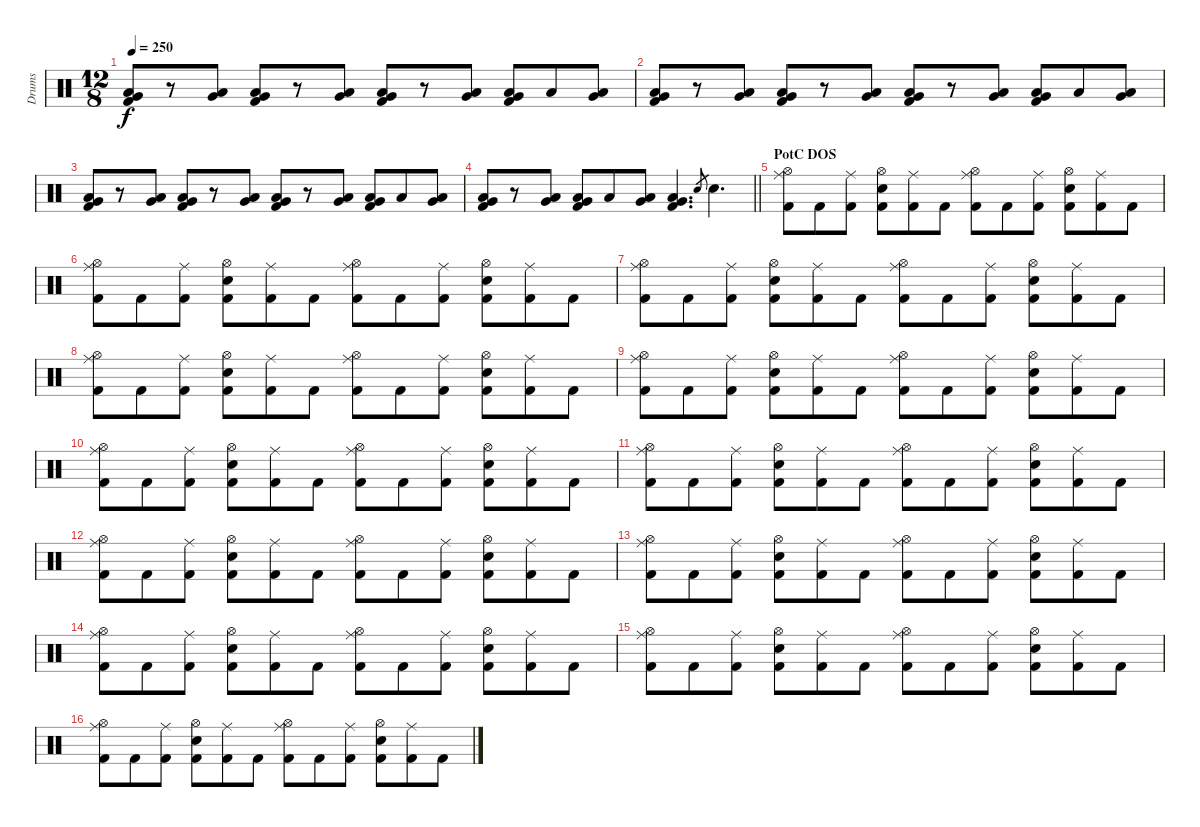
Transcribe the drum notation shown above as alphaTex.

\track ("Drums" "Drums") {instrument percussion}
\staff {score}
\articulation defaults
\ts (12 8)
\tempo 250
\clef neutral
\ks c
("Very Low Tom (hit)" "Low Floor Tom (hit)" "Kick (hit) 2").8{dy f} r.8 ("Very Low Tom (hit)" "Low Floor Tom (hit)").8 ("Very Low Tom (hit)" "Low Floor Tom (hit)" "Kick (hit) 2").8 r.8 ("Very Low Tom (hit)" "Low Floor Tom (hit)").8 ("Very Low Tom (hit)" "Low Floor Tom (hit)" "Kick (hit) 2").8 r.8 ("Very Low Tom (hit)" "Low Floor Tom (hit)").8 ("Very Low Tom (hit)" "Low Floor Tom (hit)" "Kick (hit) 2").8 "Low Floor Tom (hit)".8 ("Very Low Tom (hit)" "Low Floor Tom (hit)").8 |
("Very Low Tom (hit)" "Low Floor Tom (hit)" "Kick (hit) 2").8 r.8 ("Very Low Tom (hit)" "Low Floor Tom (hit)").8 ("Very Low Tom (hit)" "Low Floor Tom (hit)" "Kick (hit) 2").8 r.8 ("Very Low Tom (hit)" "Low Floor Tom (hit)").8 ("Very Low Tom (hit)" "Low Floor Tom (hit)" "Kick (hit) 2").8 r.8 ("Very Low Tom (hit)" "Low Floor Tom (hit)").8 ("Very Low Tom (hit)" "Low Floor Tom (hit)" "Kick (hit) 2").8 "Low Floor Tom (hit)".8 ("Very Low Tom (hit)" "Low Floor Tom (hit)").8 |
("Very Low Tom (hit)" "Low Floor Tom (hit)" "Kick (hit) 2").8 r.8 ("Very Low Tom (hit)" "Low Floor Tom (hit)").8 ("Very Low Tom (hit)" "Low Floor Tom (hit)" "Kick (hit) 2").8 r.8 ("Very Low Tom (hit)" "Low Floor Tom (hit)").8 ("Very Low Tom (hit)" "Low Floor Tom (hit)" "Kick (hit) 2").8 r.8 ("Very Low Tom (hit)" "Low Floor Tom (hit)").8 ("Very Low Tom (hit)" "Low Floor Tom (hit)" "Kick (hit) 2").8 "Low Floor Tom (hit)".8 ("Very Low Tom (hit)" "Low Floor Tom (hit)").8 |
\barLineRight lightlight
("Very Low Tom (hit)" "Low Floor Tom (hit)" "Kick (hit) 2").8 r.8 ("Very Low Tom (hit)" "Low Floor Tom (hit)").8 ("Very Low Tom (hit)" "Low Floor Tom (hit)" "Kick (hit) 2").8 "Low Floor Tom (hit)".8 ("Very Low Tom (hit)" "Low Floor Tom (hit)").8 ("Very Low Tom (hit)" "Low Floor Tom (hit)" "Kick (hit) 2").4{d} "Snare (hit) 2".8{gr} "Snare (hit) 2".4{d} |
\section ("" "PotC DOS")
("Ride (middle)" "Hi-Hat (open)" "Kick (hit) 2").8 "Kick (hit) 2".8 ("Ride (middle)" "Kick (hit) 2").8 ("Hi-Hat (open)" "Snare (hit) 2" "Kick (hit) 2").8 ("Ride (middle)" "Kick (hit) 2").8 "Kick (hit) 2".8 ("Ride (middle)" "Hi-Hat (open)" "Kick (hit) 2").8 "Kick (hit) 2".8 ("Ride (middle)" "Kick (hit) 2").8 ("Hi-Hat (open)" "Snare (hit) 2" "Kick (hit) 2").8 ("Ride (middle)" "Kick (hit) 2").8 "Kick (hit) 2".8 |
("Ride (middle)" "Hi-Hat (open)" "Kick (hit) 2").8 "Kick (hit) 2".8 ("Ride (middle)" "Kick (hit) 2").8 ("Hi-Hat (open)" "Snare (hit) 2" "Kick (hit) 2").8 ("Ride (middle)" "Kick (hit) 2").8 "Kick (hit) 2".8 ("Ride (middle)" "Hi-Hat (open)" "Kick (hit) 2").8 "Kick (hit) 2".8 ("Ride (middle)" "Kick (hit) 2").8 ("Hi-Hat (open)" "Snare (hit) 2" "Kick (hit) 2").8 ("Ride (middle)" "Kick (hit) 2").8 "Kick (hit) 2".8 |
("Ride (middle)" "Hi-Hat (open)" "Kick (hit) 2").8 "Kick (hit) 2".8 ("Ride (middle)" "Kick (hit) 2").8 ("Hi-Hat (open)" "Snare (hit) 2" "Kick (hit) 2").8 ("Ride (middle)" "Kick (hit) 2").8 "Kick (hit) 2".8 ("Ride (middle)" "Hi-Hat (open)" "Kick (hit) 2").8 "Kick (hit) 2".8 ("Ride (middle)" "Kick (hit) 2").8 ("Hi-Hat (open)" "Snare (hit) 2" "Kick (hit) 2").8 ("Ride (middle)" "Kick (hit) 2").8 "Kick (hit) 2".8 |
("Ride (middle)" "Hi-Hat (open)" "Kick (hit) 2").8 "Kick (hit) 2".8 ("Ride (middle)" "Kick (hit) 2").8 ("Hi-Hat (open)" "Snare (hit) 2" "Kick (hit) 2").8 ("Ride (middle)" "Kick (hit) 2").8 "Kick (hit) 2".8 ("Ride (middle)" "Hi-Hat (open)" "Kick (hit) 2").8 "Kick (hit) 2".8 ("Ride (middle)" "Kick (hit) 2").8 ("Hi-Hat (open)" "Snare (hit) 2" "Kick (hit) 2").8 ("Ride (middle)" "Kick (hit) 2").8 "Kick (hit) 2".8 |
("Ride (middle)" "Hi-Hat (open)" "Kick (hit) 2").8 "Kick (hit) 2".8 ("Ride (middle)" "Kick (hit) 2").8 ("Hi-Hat (open)" "Snare (hit) 2" "Kick (hit) 2").8 ("Ride (middle)" "Kick (hit) 2").8 "Kick (hit) 2".8 ("Ride (middle)" "Hi-Hat (open)" "Kick (hit) 2").8 "Kick (hit) 2".8 ("Ride (middle)" "Kick (hit) 2").8 ("Hi-Hat (open)" "Snare (hit) 2" "Kick (hit) 2").8 ("Ride (middle)" "Kick (hit) 2").8 "Kick (hit) 2".8 |
("Ride (middle)" "Hi-Hat (open)" "Kick (hit) 2").8 "Kick (hit) 2".8 ("Ride (middle)" "Kick (hit) 2").8 ("Hi-Hat (open)" "Snare (hit) 2" "Kick (hit) 2").8 ("Ride (middle)" "Kick (hit) 2").8 "Kick (hit) 2".8 ("Ride (middle)" "Hi-Hat (open)" "Kick (hit) 2").8 "Kick (hit) 2".8 ("Ride (middle)" "Kick (hit) 2").8 ("Hi-Hat (open)" "Snare (hit) 2" "Kick (hit) 2").8 ("Ride (middle)" "Kick (hit) 2").8 "Kick (hit) 2".8 |
("Ride (middle)" "Hi-Hat (open)" "Kick (hit) 2").8 "Kick (hit) 2".8 ("Ride (middle)" "Kick (hit) 2").8 ("Hi-Hat (open)" "Snare (hit) 2" "Kick (hit) 2").8 ("Ride (middle)" "Kick (hit) 2").8 "Kick (hit) 2".8 ("Ride (middle)" "Hi-Hat (open)" "Kick (hit) 2").8 "Kick (hit) 2".8 ("Ride (middle)" "Kick (hit) 2").8 ("Hi-Hat (open)" "Snare (hit) 2" "Kick (hit) 2").8 ("Ride (middle)" "Kick (hit) 2").8 "Kick (hit) 2".8 |
("Ride (middle)" "Hi-Hat (open)" "Kick (hit) 2").8 "Kick (hit) 2".8 ("Ride (middle)" "Kick (hit) 2").8 ("Hi-Hat (open)" "Snare (hit) 2" "Kick (hit) 2").8 ("Ride (middle)" "Kick (hit) 2").8 "Kick (hit) 2".8 ("Ride (middle)" "Hi-Hat (open)" "Kick (hit) 2").8 "Kick (hit) 2".8 ("Ride (middle)" "Kick (hit) 2").8 ("Hi-Hat (open)" "Snare (hit) 2" "Kick (hit) 2").8 ("Ride (middle)" "Kick (hit) 2").8 "Kick (hit) 2".8 |
("Ride (middle)" "Hi-Hat (open)" "Kick (hit) 2").8 "Kick (hit) 2".8 ("Ride (middle)" "Kick (hit) 2").8 ("Hi-Hat (open)" "Snare (hit) 2" "Kick (hit) 2").8 ("Ride (middle)" "Kick (hit) 2").8 "Kick (hit) 2".8 ("Ride (middle)" "Hi-Hat (open)" "Kick (hit) 2").8 "Kick (hit) 2".8 ("Ride (middle)" "Kick (hit) 2").8 ("Hi-Hat (open)" "Snare (hit) 2" "Kick (hit) 2").8 ("Ride (middle)" "Kick (hit) 2").8 "Kick (hit) 2".8 |
("Ride (middle)" "Hi-Hat (open)" "Kick (hit) 2").8 "Kick (hit) 2".8 ("Ride (middle)" "Kick (hit) 2").8 ("Hi-Hat (open)" "Snare (hit) 2" "Kick (hit) 2").8 ("Ride (middle)" "Kick (hit) 2").8 "Kick (hit) 2".8 ("Ride (middle)" "Hi-Hat (open)" "Kick (hit) 2").8 "Kick (hit) 2".8 ("Ride (middle)" "Kick (hit) 2").8 ("Hi-Hat (open)" "Snare (hit) 2" "Kick (hit) 2").8 ("Ride (middle)" "Kick (hit) 2").8 "Kick (hit) 2".8 |
("Ride (middle)" "Hi-Hat (open)" "Kick (hit) 2").8 "Kick (hit) 2".8 ("Ride (middle)" "Kick (hit) 2").8 ("Hi-Hat (open)" "Snare (hit) 2" "Kick (hit) 2").8 ("Ride (middle)" "Kick (hit) 2").8 "Kick (hit) 2".8 ("Ride (middle)" "Hi-Hat (open)" "Kick (hit) 2").8 "Kick (hit) 2".8 ("Ride (middle)" "Kick (hit) 2").8 ("Hi-Hat (open)" "Snare (hit) 2" "Kick (hit) 2").8 ("Ride (middle)" "Kick (hit) 2").8 "Kick (hit) 2".8 |
("Ride (middle)" "Hi-Hat (open)" "Kick (hit) 2").8 "Kick (hit) 2".8 ("Ride (middle)" "Kick (hit) 2").8 ("Hi-Hat (open)" "Snare (hit) 2" "Kick (hit) 2").8 ("Ride (middle)" "Kick (hit) 2").8 "Kick (hit) 2".8 ("Ride (middle)" "Hi-Hat (open)" "Kick (hit) 2").8 "Kick (hit) 2".8 ("Ride (middle)" "Kick (hit) 2").8 ("Hi-Hat (open)" "Snare (hit) 2" "Kick (hit) 2").8 ("Ride (middle)" "Kick (hit) 2").8 "Kick (hit) 2".8
